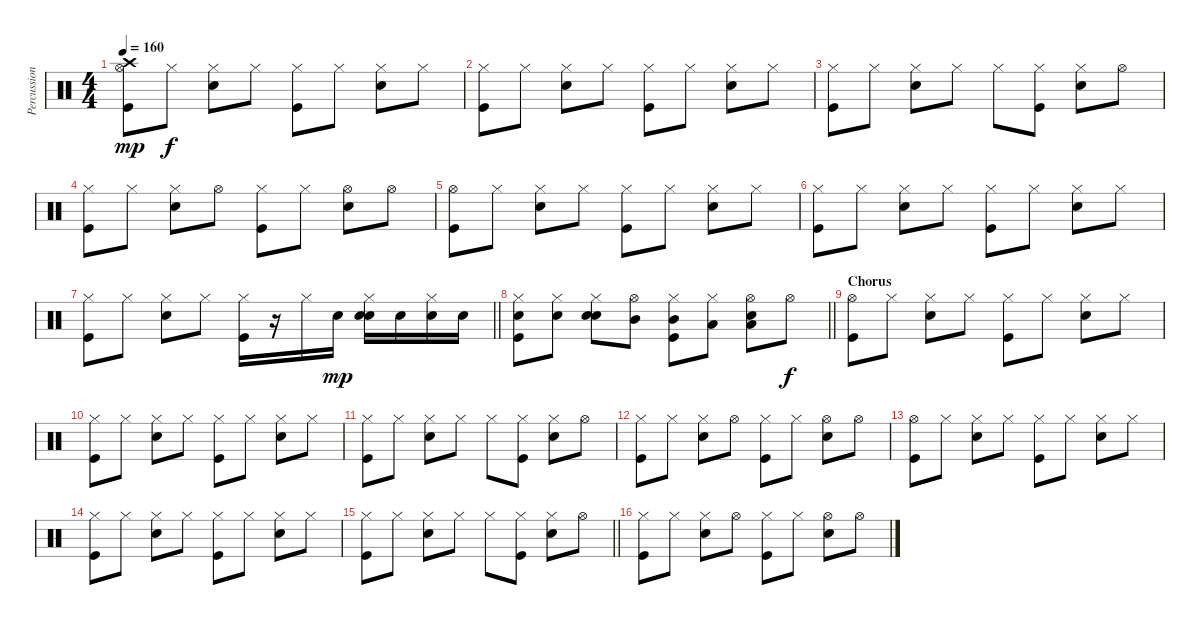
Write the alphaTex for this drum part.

\track ("Percussioni" "Percussion") {instrument percussion}
\staff {score}
\articulation defaults
\ts (4 4)
\tempo 160
\clef neutral
\ks c
("Crash high (hit)" "Hi-Hat (open)" "Kick (hit)").8{dy mp} "Hi-Hat (closed)".8{dy f} ("Hi-Hat (closed)" "Snare (hit) 2").8 "Hi-Hat (closed)".8 ("Hi-Hat (closed)" "Kick (hit)").8 "Hi-Hat (closed)".8 ("Hi-Hat (closed)" "Snare (hit) 2").8 "Hi-Hat (closed)".8 |
("Hi-Hat (closed)" "Kick (hit)").8 "Hi-Hat (closed)".8 ("Hi-Hat (closed)" "Snare (hit) 2").8 "Hi-Hat (closed)".8 ("Hi-Hat (closed)" "Kick (hit)").8 "Hi-Hat (closed)".8 ("Hi-Hat (closed)" "Snare (hit) 2").8 "Hi-Hat (closed)".8 |
("Hi-Hat (closed)" "Kick (hit)").8 "Hi-Hat (closed)".8 ("Hi-Hat (closed)" "Snare (hit) 2").8 "Hi-Hat (closed)".8 "Hi-Hat (closed)".8 ("Hi-Hat (closed)" "Kick (hit)").8 ("Hi-Hat (closed)" "Snare (hit) 2").8 "Hi-Hat (open)".8 |
("Hi-Hat (closed)" "Kick (hit)").8 "Hi-Hat (closed)".8 ("Hi-Hat (closed)" "Snare (hit) 2").8 "Hi-Hat (open)".8 ("Hi-Hat (closed)" "Kick (hit)").8 "Hi-Hat (closed)".8 ("Hi-Hat (open)" "Snare (hit) 2").8 "Hi-Hat (open)".8 |
("Hi-Hat (open)" "Kick (hit)").8 "Hi-Hat (closed)".8 ("Hi-Hat (closed)" "Snare (hit) 2").8 "Hi-Hat (closed)".8 ("Hi-Hat (closed)" "Kick (hit)").8 "Hi-Hat (closed)".8 ("Hi-Hat (closed)" "Snare (hit) 2").8 "Hi-Hat (closed)".8 |
("Hi-Hat (closed)" "Kick (hit)").8 "Hi-Hat (closed)".8 ("Hi-Hat (closed)" "Snare (hit) 2").8 "Hi-Hat (closed)".8 ("Hi-Hat (closed)" "Kick (hit)").8 "Hi-Hat (closed)".8 ("Hi-Hat (closed)" "Snare (hit) 2").8 "Hi-Hat (closed)".8 |
\barLineRight lightlight
("Hi-Hat (closed)" "Kick (hit)").8 "Hi-Hat (closed)".8 ("Hi-Hat (closed)" "Snare (hit) 2").8 "Hi-Hat (closed)".8 ("Hi-Hat (closed)" "Kick (hit)").16 r.16 "Hi-Hat (closed)".16 "Snare (hit) 2".16{dy mp} ("Snare (hit) 2" "Hi-Hat (closed)" "Snare (hit) 2").16 "Snare (hit) 2".16 ("Snare (hit) 2" "Hi-Hat (closed)").16 "Snare (hit) 2".16 |
\barLineRight lightlight
("Snare (hit) 2" "Hi-Hat (closed)" "Kick (hit)").8 ("Snare (hit) 2" "Hi-Hat (closed)").8 ("Snare (hit) 2" "Hi-Hat (closed)" "Snare (hit) 2").8 ("Mid Tom (hit)" "Hi-Hat (open)").8 ("Mid Tom (hit)" "Hi-Hat (closed)" "Kick (hit)").8 ("Low Tom (hit)" "Hi-Hat (closed)").8 ("Low Tom (hit)" "Hi-Hat (open)" "Snare (hit) 2").8 "Hi-Hat (open)".8{dy f} |
\section ("" "Chorus")
("Hi-Hat (open)" "Kick (hit)").8 "Hi-Hat (closed)".8 ("Hi-Hat (closed)" "Snare (hit) 2").8 "Hi-Hat (closed)".8 ("Hi-Hat (closed)" "Kick (hit)").8 "Hi-Hat (closed)".8 ("Hi-Hat (closed)" "Snare (hit) 2").8 "Hi-Hat (closed)".8 |
("Hi-Hat (closed)" "Kick (hit)").8 "Hi-Hat (closed)".8 ("Hi-Hat (closed)" "Snare (hit) 2").8 "Hi-Hat (closed)".8 ("Hi-Hat (closed)" "Kick (hit)").8 "Hi-Hat (closed)".8 ("Hi-Hat (closed)" "Snare (hit) 2").8 "Hi-Hat (closed)".8 |
("Hi-Hat (closed)" "Kick (hit)").8 "Hi-Hat (closed)".8 ("Hi-Hat (closed)" "Snare (hit) 2").8 "Hi-Hat (closed)".8 "Hi-Hat (closed)".8 ("Hi-Hat (closed)" "Kick (hit)").8 ("Hi-Hat (closed)" "Snare (hit) 2").8 "Hi-Hat (open)".8 |
("Hi-Hat (closed)" "Kick (hit)").8 "Hi-Hat (closed)".8 ("Hi-Hat (closed)" "Snare (hit) 2").8 "Hi-Hat (open)".8 ("Hi-Hat (closed)" "Kick (hit)").8 "Hi-Hat (closed)".8 ("Hi-Hat (open)" "Snare (hit) 2").8 "Hi-Hat (open)".8 |
("Hi-Hat (open)" "Kick (hit)").8 "Hi-Hat (closed)".8 ("Hi-Hat (closed)" "Snare (hit) 2").8 "Hi-Hat (closed)".8 ("Hi-Hat (closed)" "Kick (hit)").8 "Hi-Hat (closed)".8 ("Hi-Hat (closed)" "Snare (hit) 2").8 "Hi-Hat (closed)".8 |
("Hi-Hat (closed)" "Kick (hit)").8 "Hi-Hat (closed)".8 ("Hi-Hat (closed)" "Snare (hit) 2").8 "Hi-Hat (closed)".8 ("Hi-Hat (closed)" "Kick (hit)").8 "Hi-Hat (closed)".8 ("Hi-Hat (closed)" "Snare (hit) 2").8 "Hi-Hat (closed)".8 |
\barLineRight lightlight
("Hi-Hat (closed)" "Kick (hit)").8 "Hi-Hat (closed)".8 ("Hi-Hat (closed)" "Snare (hit) 2").8 "Hi-Hat (closed)".8 "Hi-Hat (closed)".8 ("Hi-Hat (closed)" "Kick (hit)").8 ("Hi-Hat (closed)" "Snare (hit) 2").8 "Hi-Hat (open)".8 |
("Hi-Hat (closed)" "Kick (hit)").8 "Hi-Hat (closed)".8 ("Hi-Hat (closed)" "Snare (hit) 2").8 "Hi-Hat (open)".8 ("Hi-Hat (closed)" "Kick (hit)").8 "Hi-Hat (closed)".8 ("Hi-Hat (open)" "Snare (hit) 2").8 "Hi-Hat (open)".8
